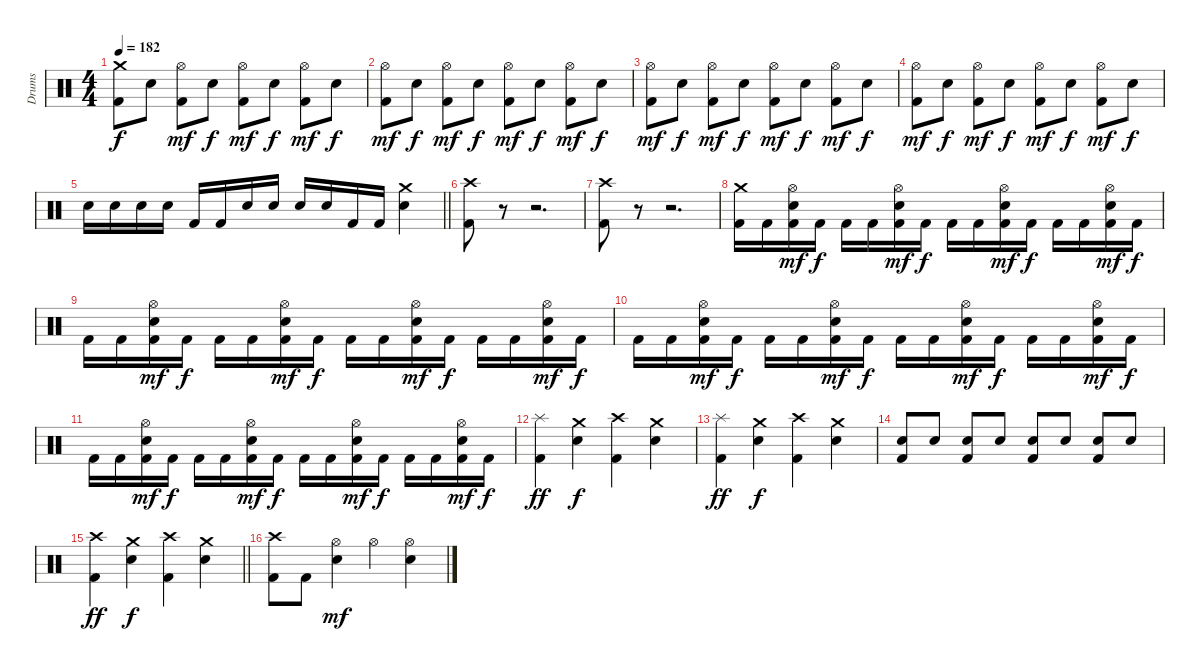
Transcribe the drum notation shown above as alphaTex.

\track ("Drums" "Drums") {instrument percussion}
\staff {score}
\articulation defaults
\ts (4 4)
\tempo 182
\clef neutral
\ks c
("Crash medium (hit)" "Kick (hit) 2").8{dy f} "Electric Snare (hit)".8 ("Hi-Hat (open)" "Kick (hit) 2").8{dy mf} "Electric Snare (hit)".8{dy f} ("Hi-Hat (open)" "Kick (hit) 2").8{dy mf} "Electric Snare (hit)".8{dy f} ("Hi-Hat (open)" "Kick (hit) 2").8{dy mf} "Electric Snare (hit)".8{dy f} |
("Hi-Hat (open)" "Kick (hit) 2").8{dy mf} "Electric Snare (hit)".8{dy f} ("Hi-Hat (open)" "Kick (hit) 2").8{dy mf} "Electric Snare (hit)".8{dy f} ("Hi-Hat (open)" "Kick (hit) 2").8{dy mf} "Electric Snare (hit)".8{dy f} ("Hi-Hat (open)" "Kick (hit) 2").8{dy mf} "Electric Snare (hit)".8{dy f} |
("Hi-Hat (open)" "Kick (hit) 2").8{dy mf} "Electric Snare (hit)".8{dy f} ("Hi-Hat (open)" "Kick (hit) 2").8{dy mf} "Electric Snare (hit)".8{dy f} ("Hi-Hat (open)" "Kick (hit) 2").8{dy mf} "Electric Snare (hit)".8{dy f} ("Hi-Hat (open)" "Kick (hit) 2").8{dy mf} "Electric Snare (hit)".8{dy f} |
("Hi-Hat (open)" "Kick (hit) 2").8{dy mf} "Electric Snare (hit)".8{dy f} ("Hi-Hat (open)" "Kick (hit) 2").8{dy mf} "Electric Snare (hit)".8{dy f} ("Hi-Hat (open)" "Kick (hit) 2").8{dy mf} "Electric Snare (hit)".8{dy f} ("Hi-Hat (open)" "Kick (hit) 2").8{dy mf} "Electric Snare (hit)".8{dy f} |
\barLineRight lightlight "Electric Snare (hit)".16 "Electric Snare (hit)".16 "Electric Snare (hit)".16 "Electric Snare (hit)".16 "Kick (hit) 2".16 "Kick (hit) 2".16 "Electric Snare (hit)".16 "Electric Snare (hit)".16 "Electric Snare (hit)".16 "Electric Snare (hit)".16 "Kick (hit) 2".16 "Kick (hit) 2".16
("Crash medium (hit)" "Electric Snare (hit)").4 |
("Crash high (hit)" "Kick (hit) 2").8 r.8{volume 0} r.2{d} |
("Crash high (hit)" "Kick (hit) 2").8{volume 14} r.8{volume 0} r.2{d} |
("Crash medium (hit)" "Kick (hit) 2").16{volume 14} "Kick (hit) 2".16 ("Hi-Hat (open)" "Electric Snare (hit)" "Kick (hit) 2").16{dy mf} "Kick (hit) 2".16{dy f} "Kick (hit) 2".16 "Kick (hit) 2".16 ("Hi-Hat (open)" "Electric Snare (hit)" "Kick (hit) 2").16{dy mf} "Kick (hit) 2".16{dy f} "Kick (hit) 2".16 "Kick (hit) 2".16 ("Hi-Hat (open)" "Electric Snare (hit)" "Kick (hit) 2").16{dy mf} "Kick (hit) 2".16{dy f} "Kick (hit) 2".16 "Kick (hit) 2".16 ("Hi-Hat (open)" "Electric Snare (hit)" "Kick (hit) 2").16{dy mf} "Kick (hit) 2".16{dy f} |
"Kick (hit) 2".16 "Kick (hit) 2".16 ("Hi-Hat (open)" "Electric Snare (hit)" "Kick (hit) 2").16{dy mf} "Kick (hit) 2".16{dy f} "Kick (hit) 2".16 "Kick (hit) 2".16 ("Hi-Hat (open)" "Electric Snare (hit)" "Kick (hit) 2").16{dy mf} "Kick (hit) 2".16{dy f} "Kick (hit) 2".16 "Kick (hit) 2".16 ("Hi-Hat (open)" "Electric Snare (hit)" "Kick (hit) 2").16{dy mf} "Kick (hit) 2".16{dy f} "Kick (hit) 2".16 "Kick (hit) 2".16 ("Hi-Hat (open)" "Electric Snare (hit)" "Kick (hit) 2").16{dy mf} "Kick (hit) 2".16{dy f} |
"Kick (hit) 2".16 "Kick (hit) 2".16 ("Hi-Hat (open)" "Electric Snare (hit)" "Kick (hit) 2").16{dy mf} "Kick (hit) 2".16{dy f} "Kick (hit) 2".16 "Kick (hit) 2".16 ("Hi-Hat (open)" "Electric Snare (hit)" "Kick (hit) 2").16{dy mf} "Kick (hit) 2".16{dy f} "Kick (hit) 2".16 "Kick (hit) 2".16 ("Hi-Hat (open)" "Electric Snare (hit)" "Kick (hit) 2").16{dy mf} "Kick (hit) 2".16{dy f} "Kick (hit) 2".16 "Kick (hit) 2".16 ("Hi-Hat (open)" "Electric Snare (hit)" "Kick (hit) 2").16{dy mf} "Kick (hit) 2".16{dy f} |
"Kick (hit) 2".16 "Kick (hit) 2".16 ("Hi-Hat (open)" "Electric Snare (hit)" "Kick (hit) 2").16{dy mf} "Kick (hit) 2".16{dy f} "Kick (hit) 2".16 "Kick (hit) 2".16 ("Hi-Hat (open)" "Electric Snare (hit)" "Kick (hit) 2").16{dy mf} "Kick (hit) 2".16{dy f} "Kick (hit) 2".16 "Kick (hit) 2".16 ("Hi-Hat (open)" "Electric Snare (hit)" "Kick (hit) 2").16{dy mf} "Kick (hit) 2".16{dy f} "Kick (hit) 2".16 "Kick (hit) 2".16 ("Hi-Hat (open)" "Electric Snare (hit)" "Kick (hit) 2").16{dy mf} "Kick (hit) 2".16{dy f} |
("Splash (hit)" "Kick (hit) 2").4{dy ff} ("Crash medium (hit)" "Electric Snare (hit)").4{dy f} ("Crash high (hit)" "Kick (hit) 2").4 ("Crash medium (hit)" "Electric Snare (hit)").4 |
("Splash (hit)" "Kick (hit) 2").4{dy ff} ("Crash medium (hit)" "Electric Snare (hit)").4{dy f} ("Crash high (hit)" "Kick (hit) 2").4 ("Crash medium (hit)" "Electric Snare (hit)").4 |
("Electric Snare (hit)" "Kick (hit) 2").8 "Electric Snare (hit)".8 ("Electric Snare (hit)" "Kick (hit) 2").8 "Electric Snare (hit)".8 ("Electric Snare (hit)" "Kick (hit) 2").8 "Electric Snare (hit)".8 ("Electric Snare (hit)" "Kick (hit) 2").8 "Electric Snare (hit)".8 |
\barLineRight lightlight
("Crash high (hit)" "Kick (hit) 2").4{dy ff} ("Crash medium (hit)" "Electric Snare (hit)").4{dy f} ("Crash high (hit)" "Kick (hit) 2").4 ("Crash medium (hit)" "Electric Snare (hit)").4 |
("Crash high (hit)" "Kick (hit) 2").8 "Kick (hit) 2".8 ("Hi-Hat (open)" "Electric Snare (hit)").4{dy mf} "Hi-Hat (open)".4 ("Hi-Hat (open)" "Electric Snare (hit)").4
